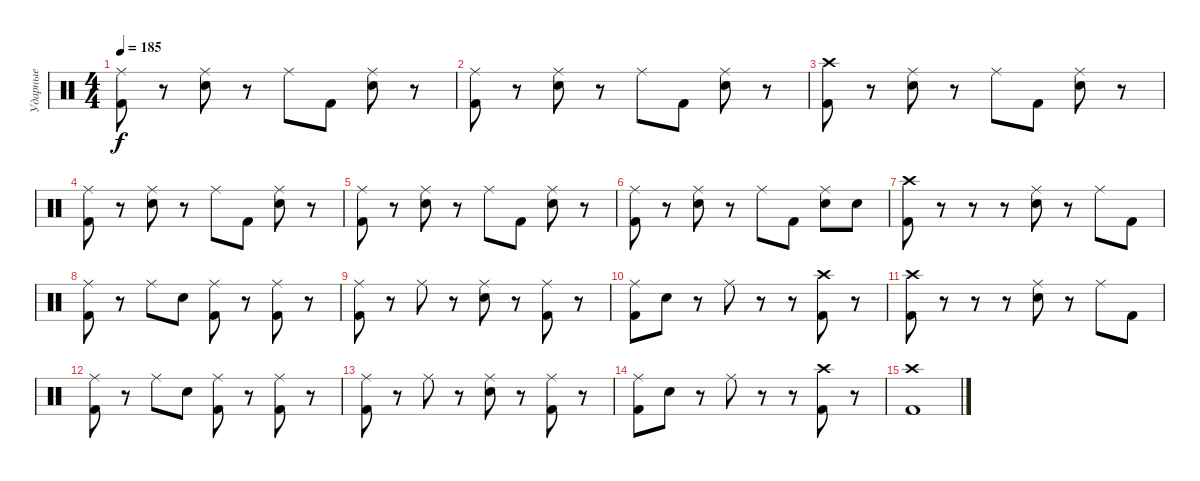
\track ("Ударные" "Ударные") {instrument percussion}
\staff {score}
\articulation defaults
\ts (4 4)
\tempo 185
\clef neutral
\ks c
("Kick (hit) 2" "Ride (middle)").8{dy f} r.8 ("Electric Snare (hit)" "Ride (middle)").8 r.8 "Ride (middle)".8 "Kick (hit) 2".8 ("Electric Snare (hit)" "Ride (middle)").8 r.8 |
("Kick (hit) 2" "Ride (middle)").8 r.8 ("Electric Snare (hit)" "Ride (middle)").8 r.8 "Ride (middle)".8 "Kick (hit) 2".8 ("Electric Snare (hit)" "Ride (middle)").8 r.8 |
("Kick (hit) 2" "Crash high (hit)").8 r.8 ("Electric Snare (hit)" "Ride (middle)").8 r.8 "Ride (middle)".8 "Kick (hit) 2".8 ("Electric Snare (hit)" "Ride (middle)").8 r.8 |
("Kick (hit) 2" "Ride (middle)").8 r.8 ("Electric Snare (hit)" "Ride (middle)").8 r.8 "Ride (middle)".8 "Kick (hit) 2".8 ("Electric Snare (hit)" "Ride (middle)").8 r.8 |
("Kick (hit) 2" "Ride (middle)").8 r.8 ("Electric Snare (hit)" "Ride (middle)").8 r.8 "Ride (middle)".8 "Kick (hit) 2".8 ("Electric Snare (hit)" "Ride (middle)").8 r.8 |
("Kick (hit) 2" "Ride (middle)").8 r.8 ("Electric Snare (hit)" "Ride (middle)").8 r.8 "Ride (middle)".8 "Kick (hit) 2".8 ("Electric Snare (hit)" "Ride (middle)").8 "Electric Snare (hit)".8 |
("Kick (hit) 2" "Crash high (hit)").8 r.8 r.8 r.8 ("Electric Snare (hit)" "Ride (middle)").8 r.8 "Ride (middle)".8 "Kick (hit) 2".8 |
("Kick (hit) 2" "Ride (middle)").8 r.8 "Ride (middle)".8 "Electric Snare (hit)".8 ("Kick (hit) 2" "Ride (middle)").8 r.8 ("Kick (hit) 2" "Ride (middle)").8 r.8 |
("Kick (hit) 2" "Ride (middle)").8 r.8 "Ride (middle)".8 r.8 ("Electric Snare (hit)" "Ride (middle)").8 r.8 ("Kick (hit) 2" "Ride (middle)").8 r.8 |
("Kick (hit) 2" "Ride (middle)").8 "Electric Snare (hit)".8 r.8 "Ride (middle)".8 r.8 r.8 ("Kick (hit) 2" "Crash high (hit)").8 r.8 |
("Kick (hit) 2" "Crash high (hit)").8 r.8 r.8 r.8 ("Electric Snare (hit)" "Ride (middle)").8 r.8 "Ride (middle)".8 "Kick (hit) 2".8 |
("Kick (hit) 2" "Ride (middle)").8 r.8 "Ride (middle)".8 "Electric Snare (hit)".8 ("Kick (hit) 2" "Ride (middle)").8 r.8 ("Kick (hit) 2" "Ride (middle)").8 r.8 |
("Kick (hit) 2" "Ride (middle)").8 r.8 "Ride (middle)".8 r.8 ("Electric Snare (hit)" "Ride (middle)").8 r.8 ("Kick (hit) 2" "Ride (middle)").8 r.8 |
("Kick (hit) 2" "Ride (middle)").8 "Electric Snare (hit)".8 r.8 "Ride (middle)".8 r.8 r.8 ("Kick (hit) 2" "Crash high (hit)").8 r.8 |
("Kick (hit) 2" "Crash high (hit)").1
